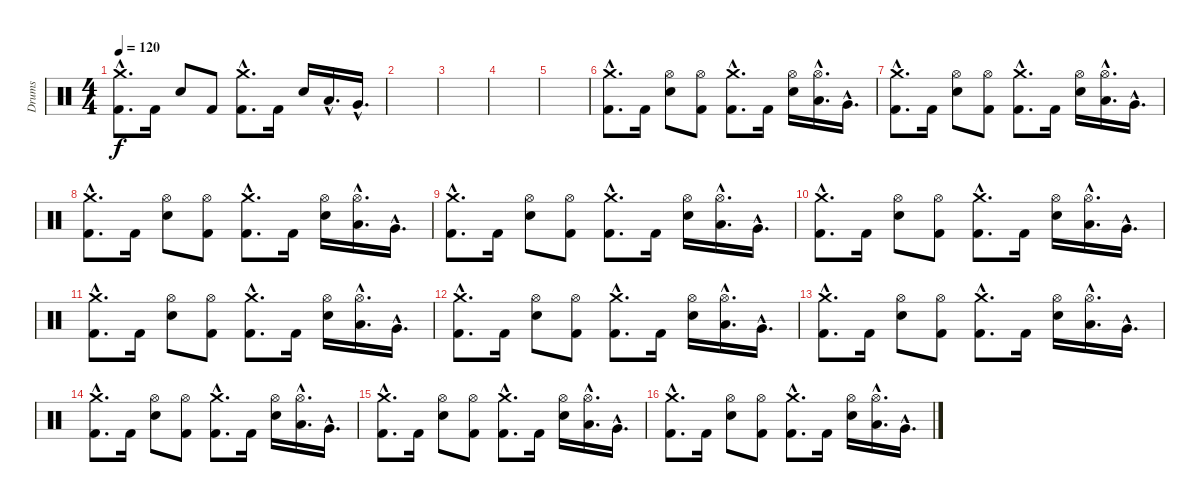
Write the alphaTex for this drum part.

\track ("Drums" "Drums") {instrument percussion}
\staff {score}
\articulation defaults
\ts (4 4)
\tempo 120
\clef neutral
\ks c
("Crash medium (hit)"{hac} "Kick (hit) 2"{hac}).8{d dy f} "Kick (hit) 2".16 "Electric Snare (hit)".8 "Kick (hit) 2".8 ("Crash medium (hit)"{hac} "Kick (hit) 2"{hac}).8{d} "Kick (hit) 2".16 "Electric Snare (hit)".16 "Low Tom (hit)"{hac}.16{d} "Very Low Tom (hit)"{hac}.16{d} |
|
|
|
|
("Crash medium (hit)"{hac} "Kick (hit) 2"{hac}).8{d} "Kick (hit) 2".16 ("Hi-Hat (open)" "Electric Snare (hit)").8 ("Hi-Hat (open)" "Kick (hit) 2").8 ("Crash medium (hit)"{hac} "Kick (hit) 2"{hac}).8{d} "Kick (hit) 2".16 ("Hi-Hat (open)" "Electric Snare (hit)").16 ("Hi-Hat (open)"{hac} "Low Tom (hit)"{hac}).16{d} "Very Low Tom (hit)"{hac}.16{d} |
("Crash medium (hit)"{hac} "Kick (hit) 2"{hac}).8{d} "Kick (hit) 2".16 ("Hi-Hat (open)" "Electric Snare (hit)").8 ("Hi-Hat (open)" "Kick (hit) 2").8 ("Crash medium (hit)"{hac} "Kick (hit) 2"{hac}).8{d} "Kick (hit) 2".16 ("Hi-Hat (open)" "Electric Snare (hit)").16 ("Hi-Hat (open)"{hac} "Low Tom (hit)"{hac}).16{d} "Very Low Tom (hit)"{hac}.16{d} |
("Crash medium (hit)"{hac} "Kick (hit) 2"{hac}).8{d} "Kick (hit) 2".16 ("Hi-Hat (open)" "Electric Snare (hit)").8 ("Hi-Hat (open)" "Kick (hit) 2").8 ("Crash medium (hit)"{hac} "Kick (hit) 2"{hac}).8{d} "Kick (hit) 2".16 ("Hi-Hat (open)" "Electric Snare (hit)").16 ("Hi-Hat (open)"{hac} "Low Tom (hit)"{hac}).16{d} "Very Low Tom (hit)"{hac}.16{d} |
("Crash medium (hit)"{hac} "Kick (hit) 2"{hac}).8{d} "Kick (hit) 2".16 ("Hi-Hat (open)" "Electric Snare (hit)").8 ("Hi-Hat (open)" "Kick (hit) 2").8 ("Crash medium (hit)"{hac} "Kick (hit) 2"{hac}).8{d} "Kick (hit) 2".16 ("Hi-Hat (open)" "Electric Snare (hit)").16 ("Hi-Hat (open)"{hac} "Low Tom (hit)"{hac}).16{d} "Very Low Tom (hit)"{hac}.16{d} |
("Crash medium (hit)"{hac} "Kick (hit) 2"{hac}).8{d} "Kick (hit) 2".16 ("Hi-Hat (open)" "Electric Snare (hit)").8 ("Hi-Hat (open)" "Kick (hit) 2").8 ("Crash medium (hit)"{hac} "Kick (hit) 2"{hac}).8{d} "Kick (hit) 2".16 ("Hi-Hat (open)" "Electric Snare (hit)").16 ("Hi-Hat (open)"{hac} "Low Tom (hit)"{hac}).16{d} "Very Low Tom (hit)"{hac}.16{d} |
("Crash medium (hit)"{hac} "Kick (hit) 2"{hac}).8{d} "Kick (hit) 2".16 ("Hi-Hat (open)" "Electric Snare (hit)").8 ("Hi-Hat (open)" "Kick (hit) 2").8 ("Crash medium (hit)"{hac} "Kick (hit) 2"{hac}).8{d} "Kick (hit) 2".16 ("Hi-Hat (open)" "Electric Snare (hit)").16 ("Hi-Hat (open)"{hac} "Low Tom (hit)"{hac}).16{d} "Very Low Tom (hit)"{hac}.16{d} |
("Crash medium (hit)"{hac} "Kick (hit) 2"{hac}).8{d} "Kick (hit) 2".16 ("Hi-Hat (open)" "Electric Snare (hit)").8 ("Hi-Hat (open)" "Kick (hit) 2").8 ("Crash medium (hit)"{hac} "Kick (hit) 2"{hac}).8{d} "Kick (hit) 2".16 ("Hi-Hat (open)" "Electric Snare (hit)").16 ("Hi-Hat (open)"{hac} "Low Tom (hit)"{hac}).16{d} "Very Low Tom (hit)"{hac}.16{d} |
("Crash medium (hit)"{hac} "Kick (hit) 2"{hac}).8{d} "Kick (hit) 2".16 ("Hi-Hat (open)" "Electric Snare (hit)").8 ("Hi-Hat (open)" "Kick (hit) 2").8 ("Crash medium (hit)"{hac} "Kick (hit) 2"{hac}).8{d} "Kick (hit) 2".16 ("Hi-Hat (open)" "Electric Snare (hit)").16 ("Hi-Hat (open)"{hac} "Low Tom (hit)"{hac}).16{d} "Very Low Tom (hit)"{hac}.16{d} |
("Crash medium (hit)"{hac} "Kick (hit) 2"{hac}).8{d} "Kick (hit) 2".16 ("Hi-Hat (open)" "Electric Snare (hit)").8 ("Hi-Hat (open)" "Kick (hit) 2").8 ("Crash medium (hit)"{hac} "Kick (hit) 2"{hac}).8{d} "Kick (hit) 2".16 ("Hi-Hat (open)" "Electric Snare (hit)").16 ("Hi-Hat (open)"{hac} "Low Tom (hit)"{hac}).16{d} "Very Low Tom (hit)"{hac}.16{d} |
("Crash medium (hit)"{hac} "Kick (hit) 2"{hac}).8{d} "Kick (hit) 2".16 ("Hi-Hat (open)" "Electric Snare (hit)").8 ("Hi-Hat (open)" "Kick (hit) 2").8 ("Crash medium (hit)"{hac} "Kick (hit) 2"{hac}).8{d} "Kick (hit) 2".16 ("Hi-Hat (open)" "Electric Snare (hit)").16 ("Hi-Hat (open)"{hac} "Low Tom (hit)"{hac}).16{d} "Very Low Tom (hit)"{hac}.16{d} |
("Crash medium (hit)"{hac} "Kick (hit) 2"{hac}).8{d} "Kick (hit) 2".16 ("Hi-Hat (open)" "Electric Snare (hit)").8 ("Hi-Hat (open)" "Kick (hit) 2").8 ("Crash medium (hit)"{hac} "Kick (hit) 2"{hac}).8{d} "Kick (hit) 2".16 ("Hi-Hat (open)" "Electric Snare (hit)").16 ("Hi-Hat (open)"{hac} "Low Tom (hit)"{hac}).16{d} "Very Low Tom (hit)"{hac}.16{d}
